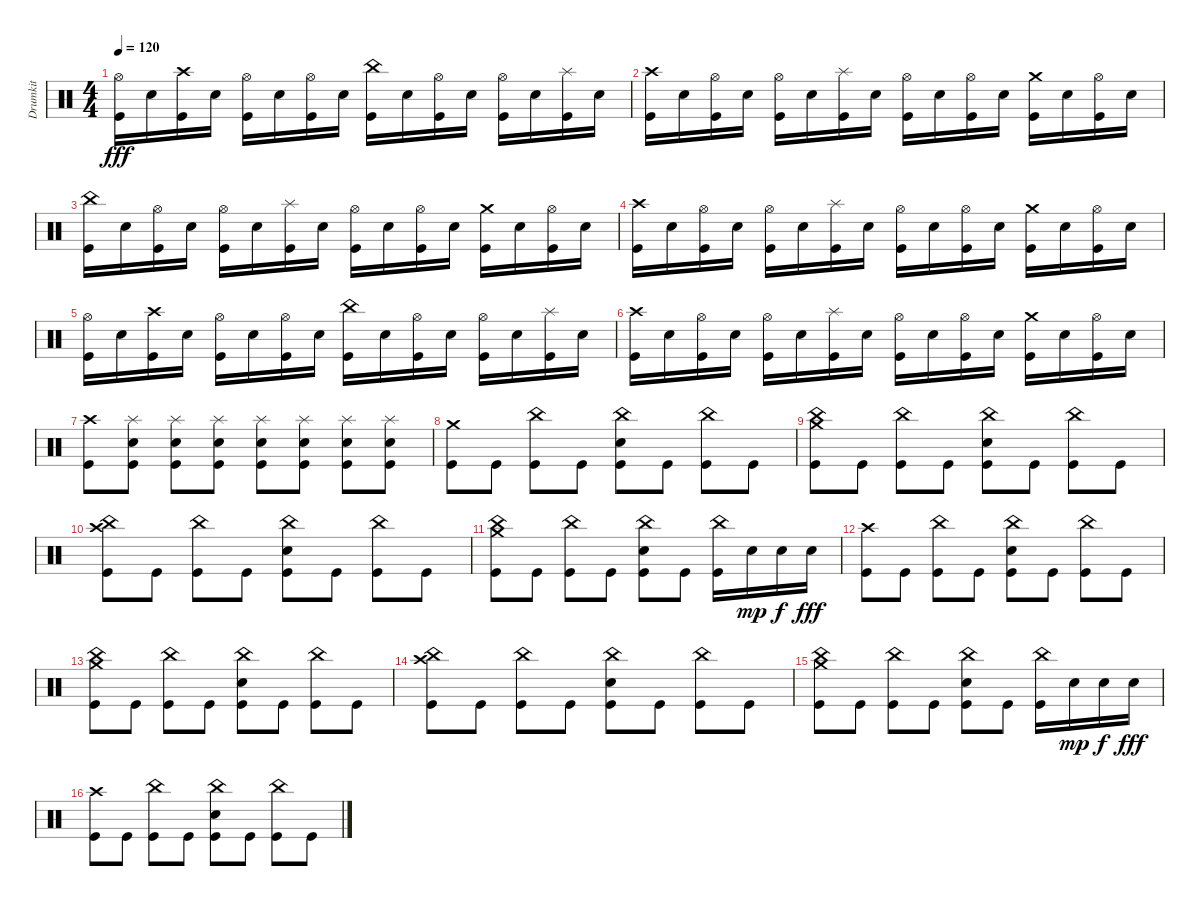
\track ("Drumkit" "Drumkit") {instrument percussion}
\staff {score}
\articulation defaults
\ts (4 4)
\tempo 120
\clef neutral
\ks c
("Hi-Hat (open)" "Kick (hit)").16{dy fff} "Snare (hit) 2".16 ("Crash high (hit)" "Kick (hit)").16 "Snare (hit) 2".16 ("Hi-Hat (open)" "Kick (hit)").16 "Snare (hit) 2".16 ("Hi-Hat (open)" "Kick (hit)").16 "Snare (hit) 2".16 ("China (hit)" "Kick (hit)").16 "Snare (hit) 2".16 ("Hi-Hat (open)" "Kick (hit)").16 "Snare (hit) 2".16 ("Hi-Hat (open)" "Kick (hit)").16 "Snare (hit) 2".16 ("Splash (hit)" "Kick (hit)").16 "Snare (hit) 2".16 |
("Crash high (hit)" "Kick (hit)").16 "Snare (hit) 2".16 ("Hi-Hat (open)" "Kick (hit)").16 "Snare (hit) 2".16 ("Hi-Hat (open)" "Kick (hit)").16 "Snare (hit) 2".16 ("Splash (hit)" "Kick (hit)").16 "Snare (hit) 2".16 ("Hi-Hat (open)" "Kick (hit)").16 "Snare (hit) 2".16 ("Hi-Hat (open)" "Kick (hit)").16 "Snare (hit) 2".16 ("Crash medium (hit)" "Kick (hit)").16 "Snare (hit) 2".16 ("Hi-Hat (open)" "Kick (hit)").16 "Snare (hit) 2".16 |
("China (hit)" "Kick (hit)").16 "Snare (hit) 2".16 ("Hi-Hat (open)" "Kick (hit)").16 "Snare (hit) 2".16 ("Hi-Hat (open)" "Kick (hit)").16 "Snare (hit) 2".16 ("Splash (hit)" "Kick (hit)").16 "Snare (hit) 2".16 ("Hi-Hat (open)" "Kick (hit)").16 "Snare (hit) 2".16 ("Hi-Hat (open)" "Kick (hit)").16 "Snare (hit) 2".16 ("Crash medium (hit)" "Kick (hit)").16 "Snare (hit) 2".16 ("Hi-Hat (open)" "Kick (hit)").16 "Snare (hit) 2".16 |
("Crash high (hit)" "Kick (hit)").16 "Snare (hit) 2".16 ("Hi-Hat (open)" "Kick (hit)").16 "Snare (hit) 2".16 ("Hi-Hat (open)" "Kick (hit)").16 "Snare (hit) 2".16 ("Splash (hit)" "Kick (hit)").16 "Snare (hit) 2".16 ("Hi-Hat (open)" "Kick (hit)").16 "Snare (hit) 2".16 ("Hi-Hat (open)" "Kick (hit)").16 "Snare (hit) 2".16 ("Crash medium (hit)" "Kick (hit)").16 "Snare (hit) 2".16 ("Hi-Hat (open)" "Kick (hit)").16 "Snare (hit) 2".16 |
("Hi-Hat (open)" "Kick (hit)").16 "Snare (hit) 2".16 ("Crash high (hit)" "Kick (hit)").16 "Snare (hit) 2".16 ("Hi-Hat (open)" "Kick (hit)").16 "Snare (hit) 2".16 ("Hi-Hat (open)" "Kick (hit)").16 "Snare (hit) 2".16 ("China (hit)" "Kick (hit)").16 "Snare (hit) 2".16 ("Hi-Hat (open)" "Kick (hit)").16 "Snare (hit) 2".16 ("Hi-Hat (open)" "Kick (hit)").16 "Snare (hit) 2".16 ("Splash (hit)" "Kick (hit)").16 "Snare (hit) 2".16 |
("Crash high (hit)" "Kick (hit)").16 "Snare (hit) 2".16 ("Hi-Hat (open)" "Kick (hit)").16 "Snare (hit) 2".16 ("Hi-Hat (open)" "Kick (hit)").16 "Snare (hit) 2".16 ("Splash (hit)" "Kick (hit)").16 "Snare (hit) 2".16 ("Hi-Hat (open)" "Kick (hit)").16 "Snare (hit) 2".16 ("Hi-Hat (open)" "Kick (hit)").16 "Snare (hit) 2".16 ("Crash medium (hit)" "Kick (hit)").16 "Snare (hit) 2".16 ("Hi-Hat (open)" "Kick (hit)").16 "Snare (hit) 2".16 |
("Crash high (hit)" "Kick (hit)").8 ("Splash (hit)" "Snare (hit) 2" "Kick (hit)").8 ("Splash (hit)" "Snare (hit) 2" "Kick (hit)").8 ("Splash (hit)" "Snare (hit) 2" "Kick (hit)").8 ("Splash (hit)" "Snare (hit) 2" "Kick (hit)").8 ("Splash (hit)" "Snare (hit) 2" "Kick (hit)").8 ("Splash (hit)" "Snare (hit) 2" "Kick (hit)").8 ("Splash (hit)" "Snare (hit) 2" "Kick (hit)").8 |
("Crash medium (hit)" "Kick (hit)").8 "Kick (hit)".8 ("China (hit)" "Kick (hit)").8 "Kick (hit)".8 ("China (hit)" "Snare (hit) 2" "Kick (hit)").8 "Kick (hit)".8 ("China (hit)" "Kick (hit)").8 "Kick (hit)".8 |
("Crash medium (hit)" "China (hit)" "Kick (hit)").8 "Kick (hit)".8 ("China (hit)" "Kick (hit)").8 "Kick (hit)".8 ("China (hit)" "Snare (hit) 2" "Kick (hit)").8 "Kick (hit)".8 ("China (hit)" "Kick (hit)").8 "Kick (hit)".8 |
("Crash high (hit)" "China (hit)" "Kick (hit)").8 "Kick (hit)".8 ("China (hit)" "Kick (hit)").8 "Kick (hit)".8 ("China (hit)" "Snare (hit) 2" "Kick (hit)").8 "Kick (hit)".8 ("China (hit)" "Kick (hit)").8 "Kick (hit)".8 |
("Crash medium (hit)" "China (hit)" "Kick (hit)").8 "Kick (hit)".8 ("China (hit)" "Kick (hit)").8 "Kick (hit)".8 ("China (hit)" "Snare (hit) 2" "Kick (hit)").8 "Kick (hit)".8 ("China (hit)" "Kick (hit)").16 "Snare (hit) 2".16{dy mp} "Snare (hit) 2".16{dy f} "Snare (hit) 2".16{dy fff} |
("Crash high (hit)" "Kick (hit)").8 "Kick (hit)".8 ("China (hit)" "Kick (hit)").8 "Kick (hit)".8 ("China (hit)" "Snare (hit) 2" "Kick (hit)").8 "Kick (hit)".8 ("China (hit)" "Kick (hit)").8 "Kick (hit)".8 |
("Crash medium (hit)" "China (hit)" "Kick (hit)").8 "Kick (hit)".8 ("China (hit)" "Kick (hit)").8 "Kick (hit)".8 ("China (hit)" "Snare (hit) 2" "Kick (hit)").8 "Kick (hit)".8 ("China (hit)" "Kick (hit)").8 "Kick (hit)".8 |
("Crash high (hit)" "China (hit)" "Kick (hit)").8 "Kick (hit)".8 ("China (hit)" "Kick (hit)").8 "Kick (hit)".8 ("China (hit)" "Snare (hit) 2" "Kick (hit)").8 "Kick (hit)".8 ("China (hit)" "Kick (hit)").8 "Kick (hit)".8 |
("Crash medium (hit)" "China (hit)" "Kick (hit)").8 "Kick (hit)".8 ("China (hit)" "Kick (hit)").8 "Kick (hit)".8 ("China (hit)" "Snare (hit) 2" "Kick (hit)").8 "Kick (hit)".8 ("China (hit)" "Kick (hit)").16 "Snare (hit) 2".16{dy mp} "Snare (hit) 2".16{dy f} "Snare (hit) 2".16{dy fff} |
("Crash high (hit)" "Kick (hit)").8 "Kick (hit)".8 ("China (hit)" "Kick (hit)").8 "Kick (hit)".8 ("China (hit)" "Snare (hit) 2" "Kick (hit)").8 "Kick (hit)".8 ("China (hit)" "Kick (hit)").8 "Kick (hit)".8
